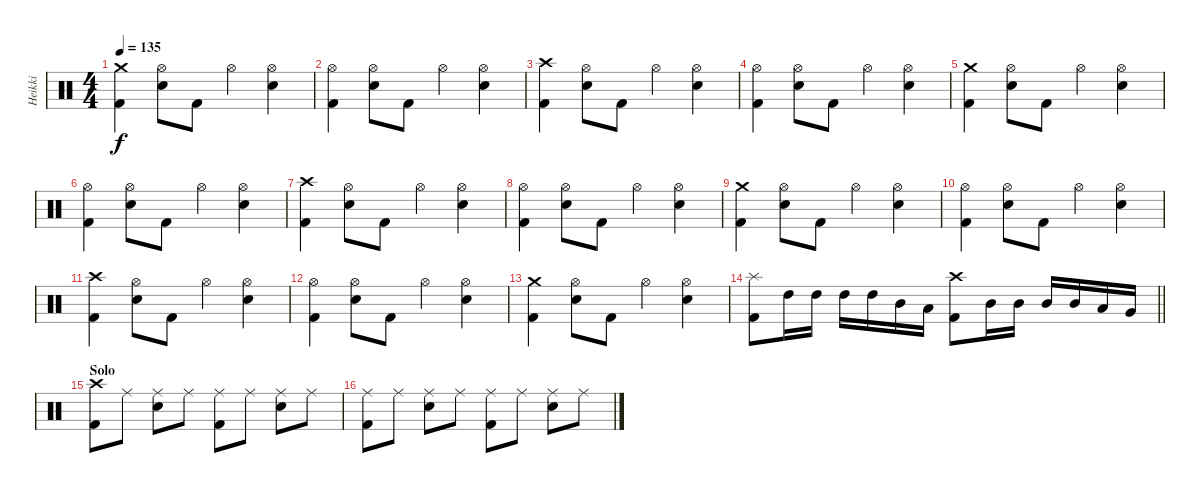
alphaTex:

\track ("Heikki" "Heikki") {instrument percussion}
\staff {score}
\articulation defaults
\ts (4 4)
\tempo 135
\clef neutral
\ks c
("Crash medium (hit)" "Kick (hit) 2").4{dy f} ("Hi-Hat (open)" "Electric Snare (hit)").8 "Kick (hit) 2".8 "Hi-Hat (open)".4 ("Hi-Hat (open)" "Electric Snare (hit)").4 |
("Hi-Hat (open)" "Kick (hit) 2").4 ("Hi-Hat (open)" "Electric Snare (hit)").8 "Kick (hit) 2".8 "Hi-Hat (open)".4 ("Hi-Hat (open)" "Electric Snare (hit)").4 |
("Crash high (hit)" "Kick (hit) 2").4 ("Hi-Hat (open)" "Electric Snare (hit)").8 "Kick (hit) 2".8 "Hi-Hat (open)".4 ("Hi-Hat (open)" "Electric Snare (hit)").4 |
("Hi-Hat (open)" "Kick (hit) 2").4 ("Hi-Hat (open)" "Electric Snare (hit)").8 "Kick (hit) 2".8 "Hi-Hat (open)".4 ("Hi-Hat (open)" "Electric Snare (hit)").4 |
("Crash medium (hit)" "Kick (hit) 2").4 ("Hi-Hat (open)" "Electric Snare (hit)").8 "Kick (hit) 2".8 "Hi-Hat (open)".4 ("Hi-Hat (open)" "Electric Snare (hit)").4 |
("Hi-Hat (open)" "Kick (hit) 2").4 ("Hi-Hat (open)" "Electric Snare (hit)").8 "Kick (hit) 2".8 "Hi-Hat (open)".4 ("Hi-Hat (open)" "Electric Snare (hit)").4 |
("Crash high (hit)" "Kick (hit) 2").4 ("Hi-Hat (open)" "Electric Snare (hit)").8 "Kick (hit) 2".8 "Hi-Hat (open)".4 ("Hi-Hat (open)" "Electric Snare (hit)").4 |
("Hi-Hat (open)" "Kick (hit) 2").4 ("Hi-Hat (open)" "Electric Snare (hit)").8 "Kick (hit) 2".8 "Hi-Hat (open)".4 ("Hi-Hat (open)" "Electric Snare (hit)").4 |
("Crash medium (hit)" "Kick (hit) 2").4 ("Hi-Hat (open)" "Electric Snare (hit)").8 "Kick (hit) 2".8 "Hi-Hat (open)".4 ("Hi-Hat (open)" "Electric Snare (hit)").4 |
("Hi-Hat (open)" "Kick (hit) 2").4 ("Hi-Hat (open)" "Electric Snare (hit)").8 "Kick (hit) 2".8 "Hi-Hat (open)".4 ("Hi-Hat (open)" "Electric Snare (hit)").4 |
("Crash high (hit)" "Kick (hit) 2").4 ("Hi-Hat (open)" "Electric Snare (hit)").8 "Kick (hit) 2".8 "Hi-Hat (open)".4 ("Hi-Hat (open)" "Electric Snare (hit)").4 |
("Hi-Hat (open)" "Kick (hit) 2").4 ("Hi-Hat (open)" "Electric Snare (hit)").8 "Kick (hit) 2".8 "Hi-Hat (open)".4 ("Hi-Hat (open)" "Electric Snare (hit)").4 |
("Crash medium (hit)" "Kick (hit) 2").4 ("Hi-Hat (open)" "Electric Snare (hit)").8 "Kick (hit) 2".8 "Hi-Hat (open)".4 ("Hi-Hat (open)" "Electric Snare (hit)").4 |
\barLineRight lightlight
("Splash (hit)" "Kick (hit) 2").8 "High Tom (hit)".16 "High Tom (hit)".16 "High Tom (hit)".16 "High Tom (hit)".16 "Mid Tom (hit)".16 "Low Tom (hit)".16 ("Crash high (hit)" "Kick (hit) 2").8 "Mid Tom (hit)".16 "Mid Tom (hit)".16 "Mid Tom (hit)".16 "Mid Tom (hit)".16 "Low Tom (hit)".16 "Very Low Tom (hit)".16 |
\section ("" "Solo")
("Crash high (hit)" "Kick (hit) 2").8 "Ride (middle)".8 ("Ride (middle)" "Electric Snare (hit)").8 "Ride (middle)".8 ("Ride (middle)" "Kick (hit) 2").8 "Ride (middle)".8 ("Ride (middle)" "Electric Snare (hit)").8 "Ride (middle)".8 |
("Ride (middle)" "Kick (hit) 2").8 "Ride (middle)".8 ("Ride (middle)" "Electric Snare (hit)").8 "Ride (middle)".8 ("Ride (middle)" "Kick (hit) 2").8 "Ride (middle)".8 ("Ride (middle)" "Electric Snare (hit)").8 "Ride (middle)".8
